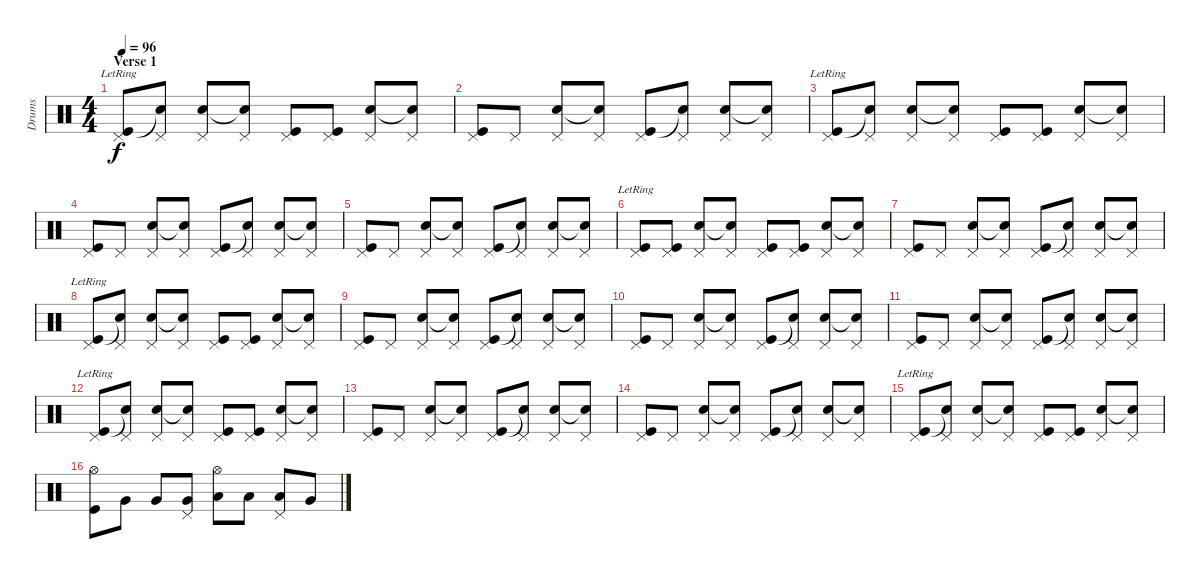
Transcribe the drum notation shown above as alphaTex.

\track ("Drums" "Drums") {instrument percussion}
\staff {score}
\articulation defaults
\ts (4 4)
\section ("" "Verse 1")
\tempo 96
\clef neutral
\ks c
("Kick (hit)"{lr} "Pedal Hi-Hat (hit)").8{dy f} ("Snare (hit)"{t} "Pedal Hi-Hat (hit)").8 ("Snare (hit) 2" "Pedal Hi-Hat (hit)").8 ("Snare (hit)"{t} "Pedal Hi-Hat (hit)").8 ("Kick (hit)" "Pedal Hi-Hat (hit)").8 ("Kick (hit)" "Pedal Hi-Hat (hit)").8 ("Snare (hit) 2" "Pedal Hi-Hat (hit)").8 ("Snare (hit)"{t} "Pedal Hi-Hat (hit)").8 |
("Kick (hit)" "Pedal Hi-Hat (hit)").8 "Pedal Hi-Hat (hit)".8 ("Snare (hit) 2" "Pedal Hi-Hat (hit)").8 ("Snare (hit)"{t} "Pedal Hi-Hat (hit)").8 ("Kick (hit)" "Pedal Hi-Hat (hit)").8 ("Snare (hit)"{t} "Pedal Hi-Hat (hit)").8 ("Snare (hit) 2" "Pedal Hi-Hat (hit)").8 ("Snare (hit)"{t} "Pedal Hi-Hat (hit)").8 |
("Kick (hit)"{lr} "Pedal Hi-Hat (hit)").8 ("Snare (hit)"{t} "Pedal Hi-Hat (hit)").8 ("Snare (hit) 2" "Pedal Hi-Hat (hit)").8 ("Snare (hit)"{t} "Pedal Hi-Hat (hit)").8 ("Kick (hit)" "Pedal Hi-Hat (hit)").8 ("Kick (hit)" "Pedal Hi-Hat (hit)").8 ("Snare (hit) 2" "Pedal Hi-Hat (hit)").8 ("Snare (hit)"{t} "Pedal Hi-Hat (hit)").8 |
("Kick (hit)" "Pedal Hi-Hat (hit)").8 "Pedal Hi-Hat (hit)".8 ("Snare (hit) 2" "Pedal Hi-Hat (hit)").8 ("Snare (hit)"{t} "Pedal Hi-Hat (hit)").8 ("Kick (hit)" "Pedal Hi-Hat (hit)").8 ("Snare (hit)"{t} "Pedal Hi-Hat (hit)").8 ("Snare (hit) 2" "Pedal Hi-Hat (hit)").8 ("Snare (hit)"{t} "Pedal Hi-Hat (hit)").8 |
("Kick (hit)" "Pedal Hi-Hat (hit)").8 "Pedal Hi-Hat (hit)".8 ("Snare (hit) 2" "Pedal Hi-Hat (hit)").8 ("Snare (hit)"{t} "Pedal Hi-Hat (hit)").8 ("Kick (hit)" "Pedal Hi-Hat (hit)").8 ("Snare (hit)"{t} "Pedal Hi-Hat (hit)").8 ("Snare (hit) 2" "Pedal Hi-Hat (hit)").8 ("Snare (hit)"{t} "Pedal Hi-Hat (hit)").8 |
("Kick (hit)"{lr} "Pedal Hi-Hat (hit)").8 ("Kick (hit)" "Pedal Hi-Hat (hit)").8 ("Snare (hit) 2" "Pedal Hi-Hat (hit)").8 ("Snare (hit)"{t} "Pedal Hi-Hat (hit)").8 ("Kick (hit)" "Pedal Hi-Hat (hit)").8 ("Kick (hit)" "Pedal Hi-Hat (hit)").8 ("Snare (hit) 2" "Pedal Hi-Hat (hit)").8 ("Snare (hit)"{t} "Pedal Hi-Hat (hit)").8 |
("Kick (hit)" "Pedal Hi-Hat (hit)").8 "Pedal Hi-Hat (hit)".8 ("Snare (hit) 2" "Pedal Hi-Hat (hit)").8 ("Snare (hit)"{t} "Pedal Hi-Hat (hit)").8 ("Kick (hit)" "Pedal Hi-Hat (hit)").8 ("Snare (hit)"{t} "Pedal Hi-Hat (hit)").8 ("Snare (hit) 2" "Pedal Hi-Hat (hit)").8 ("Snare (hit)"{t} "Pedal Hi-Hat (hit)").8 |
("Kick (hit)"{lr} "Pedal Hi-Hat (hit)").8 ("Snare (hit)"{t} "Pedal Hi-Hat (hit)").8 ("Snare (hit) 2" "Pedal Hi-Hat (hit)").8 ("Snare (hit)"{t} "Pedal Hi-Hat (hit)").8 ("Kick (hit)" "Pedal Hi-Hat (hit)").8 ("Kick (hit)" "Pedal Hi-Hat (hit)").8 ("Snare (hit) 2" "Pedal Hi-Hat (hit)").8 ("Snare (hit)"{t} "Pedal Hi-Hat (hit)").8 |
("Kick (hit)" "Pedal Hi-Hat (hit)").8 "Pedal Hi-Hat (hit)".8 ("Snare (hit) 2" "Pedal Hi-Hat (hit)").8 ("Snare (hit)"{t} "Pedal Hi-Hat (hit)").8 ("Kick (hit)" "Pedal Hi-Hat (hit)").8 ("Snare (hit)"{t} "Pedal Hi-Hat (hit)").8 ("Snare (hit) 2" "Pedal Hi-Hat (hit)").8 ("Snare (hit)"{t} "Pedal Hi-Hat (hit)").8 |
("Kick (hit)" "Pedal Hi-Hat (hit)").8 "Pedal Hi-Hat (hit)".8 ("Snare (hit) 2" "Pedal Hi-Hat (hit)").8 ("Snare (hit)"{t} "Pedal Hi-Hat (hit)").8 ("Kick (hit)" "Pedal Hi-Hat (hit)").8 ("Snare (hit)"{t} "Pedal Hi-Hat (hit)").8 ("Snare (hit) 2" "Pedal Hi-Hat (hit)").8 ("Snare (hit)"{t} "Pedal Hi-Hat (hit)").8 |
("Kick (hit)" "Pedal Hi-Hat (hit)").8 "Pedal Hi-Hat (hit)".8 ("Snare (hit) 2" "Pedal Hi-Hat (hit)").8 ("Snare (hit)"{t} "Pedal Hi-Hat (hit)").8 ("Kick (hit)" "Pedal Hi-Hat (hit)").8 ("Snare (hit)"{t} "Pedal Hi-Hat (hit)").8 ("Snare (hit) 2" "Pedal Hi-Hat (hit)").8 ("Snare (hit)"{t} "Pedal Hi-Hat (hit)").8 |
("Kick (hit)"{lr} "Pedal Hi-Hat (hit)").8 ("Snare (hit)"{t} "Pedal Hi-Hat (hit)").8 ("Snare (hit) 2" "Pedal Hi-Hat (hit)").8 ("Snare (hit)"{t} "Pedal Hi-Hat (hit)").8 ("Kick (hit)" "Pedal Hi-Hat (hit)").8 ("Kick (hit)" "Pedal Hi-Hat (hit)").8 ("Snare (hit) 2" "Pedal Hi-Hat (hit)").8 ("Snare (hit)"{t} "Pedal Hi-Hat (hit)").8 |
("Kick (hit)" "Pedal Hi-Hat (hit)").8 "Pedal Hi-Hat (hit)".8 ("Snare (hit) 2" "Pedal Hi-Hat (hit)").8 ("Snare (hit)"{t} "Pedal Hi-Hat (hit)").8 ("Kick (hit)" "Pedal Hi-Hat (hit)").8 ("Snare (hit)"{t} "Pedal Hi-Hat (hit)").8 ("Snare (hit) 2" "Pedal Hi-Hat (hit)").8 ("Snare (hit)"{t} "Pedal Hi-Hat (hit)").8 |
("Kick (hit)" "Pedal Hi-Hat (hit)").8 "Pedal Hi-Hat (hit)".8 ("Snare (hit) 2" "Pedal Hi-Hat (hit)").8 ("Snare (hit)"{t} "Pedal Hi-Hat (hit)").8 ("Kick (hit)" "Pedal Hi-Hat (hit)").8 ("Snare (hit)"{t} "Pedal Hi-Hat (hit)").8 ("Snare (hit) 2" "Pedal Hi-Hat (hit)").8 ("Snare (hit)"{t} "Pedal Hi-Hat (hit)").8 |
("Kick (hit)"{lr} "Pedal Hi-Hat (hit)").8 ("Snare (hit)"{t} "Pedal Hi-Hat (hit)").8 ("Snare (hit) 2" "Pedal Hi-Hat (hit)").8 ("Snare (hit)"{t} "Pedal Hi-Hat (hit)").8 ("Kick (hit)" "Pedal Hi-Hat (hit)").8 ("Kick (hit)" "Pedal Hi-Hat (hit)").8 ("Snare (hit) 2" "Pedal Hi-Hat (hit)").8 ("Snare (hit)"{t} "Pedal Hi-Hat (hit)").8 |
("Kick (hit)" "Hi-Hat (open)").8 "Very Low Tom (hit)".8 "Very Low Tom (hit)".8 ("Very Low Tom (hit)" "Pedal Hi-Hat (hit)").8 ("Low Tom (hit)" "Hi-Hat (open)").8 "Low Tom (hit)".8 ("Low Tom (hit)" "Pedal Hi-Hat (hit)").8 "Very Low Tom (hit)".8
